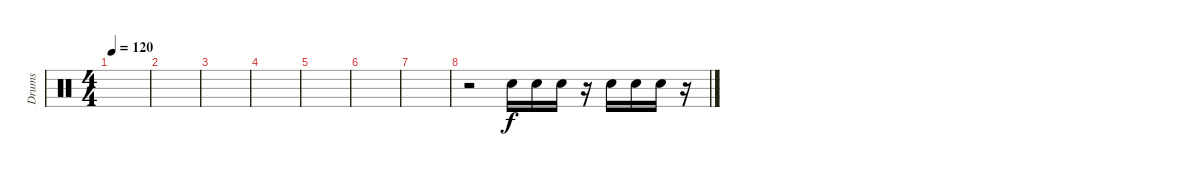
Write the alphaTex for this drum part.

\track ("Drums" "Drums") {instrument percussion}
\staff {score}
\articulation defaults
\ts (4 4)
\tempo 120
\clef neutral
\ks c
|
|
|
|
|
|
|
r.2 "Snare (hit) 2".16 "Snare (hit) 2".16 "Snare (hit) 2".16 r.16 "Snare (hit) 2".16 "Snare (hit) 2".16 "Snare (hit) 2".16 r.16
